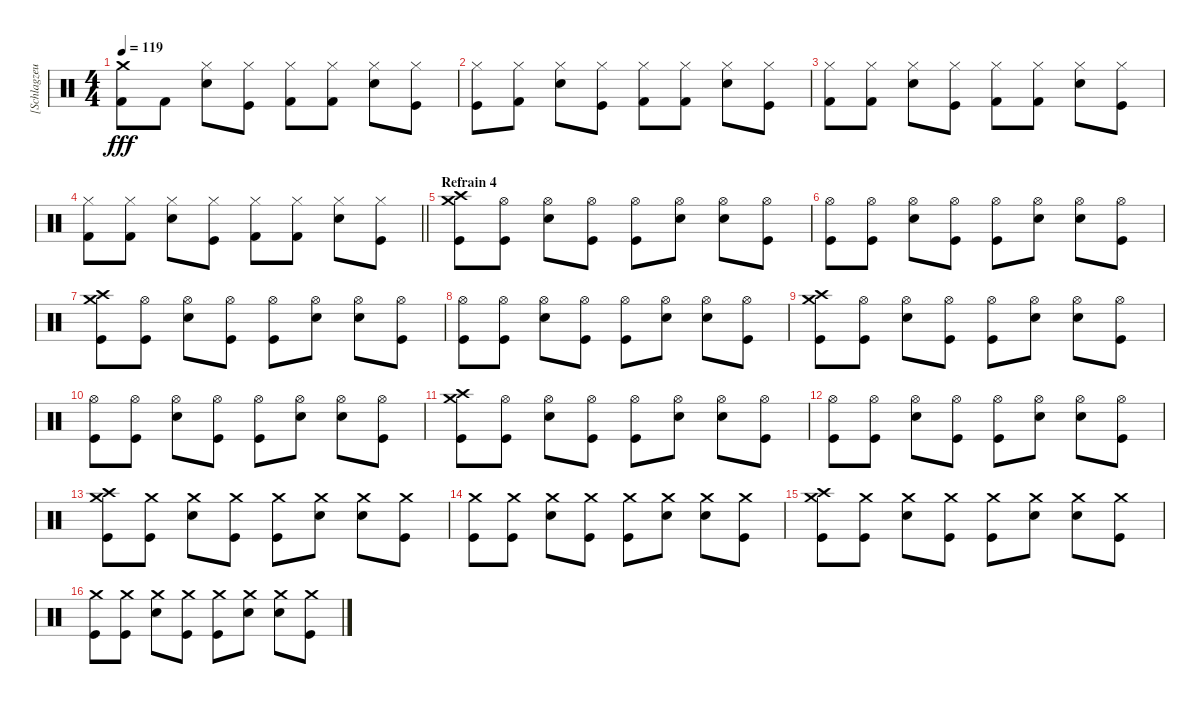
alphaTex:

\track ("[Schlagzeug]" "[Schlagzeu") {instrument percussion}
\staff {score}
\articulation defaults
\ts (4 4)
\tempo 119
\clef neutral
\ks c
("Crash medium (hit)" "Kick (hit) 2").8{dy fff} "Kick (hit) 2".8 ("Hi-Hat (closed)" "Electric Snare (hit)").8 ("Hi-Hat (closed)" "Kick (hit)").8 ("Hi-Hat (closed)" "Kick (hit) 2").8 ("Hi-Hat (closed)" "Kick (hit) 2").8 ("Hi-Hat (closed)" "Electric Snare (hit)").8 ("Hi-Hat (closed)" "Kick (hit)").8 |
("Hi-Hat (closed)" "Kick (hit)").8 ("Hi-Hat (closed)" "Kick (hit) 2").8 ("Hi-Hat (closed)" "Electric Snare (hit)").8 ("Hi-Hat (closed)" "Kick (hit)").8 ("Hi-Hat (closed)" "Kick (hit) 2").8 ("Hi-Hat (closed)" "Kick (hit) 2").8 ("Hi-Hat (closed)" "Electric Snare (hit)").8 ("Hi-Hat (closed)" "Kick (hit)").8 |
("Hi-Hat (closed)" "Kick (hit) 2").8 ("Hi-Hat (closed)" "Kick (hit) 2").8 ("Hi-Hat (closed)" "Electric Snare (hit)").8 ("Hi-Hat (closed)" "Kick (hit)").8 ("Hi-Hat (closed)" "Kick (hit) 2").8 ("Hi-Hat (closed)" "Kick (hit) 2").8 ("Hi-Hat (closed)" "Electric Snare (hit)").8 ("Hi-Hat (closed)" "Kick (hit)").8 |
\barLineRight lightlight
("Hi-Hat (closed)" "Kick (hit) 2").8 ("Hi-Hat (closed)" "Kick (hit) 2").8 ("Hi-Hat (closed)" "Electric Snare (hit)").8 ("Hi-Hat (closed)" "Kick (hit)").8 ("Hi-Hat (closed)" "Kick (hit) 2").8 ("Hi-Hat (closed)" "Kick (hit) 2").8 ("Hi-Hat (closed)" "Electric Snare (hit)").8 ("Hi-Hat (closed)" "Kick (hit)").8 |
\section ("" "Refrain 4")
("Crash medium (hit)" "Crash high (hit)" "Kick (hit)").8 ("Hi-Hat (open)" "Kick (hit)").8 ("Hi-Hat (open)" "Electric Snare (hit)").8 ("Hi-Hat (open)" "Kick (hit)").8 ("Hi-Hat (open)" "Kick (hit)").8 ("Hi-Hat (open)" "Electric Snare (hit)").8 ("Hi-Hat (open)" "Electric Snare (hit)").8 ("Hi-Hat (open)" "Kick (hit)").8 |
("Hi-Hat (open)" "Kick (hit)").8 ("Hi-Hat (open)" "Kick (hit)").8 ("Hi-Hat (open)" "Electric Snare (hit)").8 ("Hi-Hat (open)" "Kick (hit)").8 ("Hi-Hat (open)" "Kick (hit)").8 ("Hi-Hat (open)" "Electric Snare (hit)").8 ("Hi-Hat (open)" "Electric Snare (hit)").8 ("Hi-Hat (open)" "Kick (hit)").8 |
("Crash medium (hit)" "Crash high (hit)" "Kick (hit)").8 ("Hi-Hat (open)" "Kick (hit)").8 ("Hi-Hat (open)" "Electric Snare (hit)").8 ("Hi-Hat (open)" "Kick (hit)").8 ("Hi-Hat (open)" "Kick (hit)").8 ("Hi-Hat (open)" "Electric Snare (hit)").8 ("Hi-Hat (open)" "Electric Snare (hit)").8 ("Hi-Hat (open)" "Kick (hit)").8 |
("Hi-Hat (open)" "Kick (hit)").8 ("Hi-Hat (open)" "Kick (hit)").8 ("Hi-Hat (open)" "Electric Snare (hit)").8 ("Hi-Hat (open)" "Kick (hit)").8 ("Hi-Hat (open)" "Kick (hit)").8 ("Hi-Hat (open)" "Electric Snare (hit)").8 ("Hi-Hat (open)" "Electric Snare (hit)").8 ("Hi-Hat (open)" "Kick (hit)").8 |
("Crash medium (hit)" "Crash high (hit)" "Kick (hit)").8 ("Hi-Hat (open)" "Kick (hit)").8 ("Hi-Hat (open)" "Electric Snare (hit)").8 ("Hi-Hat (open)" "Kick (hit)").8 ("Hi-Hat (open)" "Kick (hit)").8 ("Hi-Hat (open)" "Electric Snare (hit)").8 ("Hi-Hat (open)" "Electric Snare (hit)").8 ("Hi-Hat (open)" "Kick (hit)").8 |
("Hi-Hat (open)" "Kick (hit)").8 ("Hi-Hat (open)" "Kick (hit)").8 ("Hi-Hat (open)" "Electric Snare (hit)").8 ("Hi-Hat (open)" "Kick (hit)").8 ("Hi-Hat (open)" "Kick (hit)").8 ("Hi-Hat (open)" "Electric Snare (hit)").8 ("Hi-Hat (open)" "Electric Snare (hit)").8 ("Hi-Hat (open)" "Kick (hit)").8 |
("Crash medium (hit)" "Crash high (hit)" "Kick (hit)").8 ("Hi-Hat (open)" "Kick (hit)").8 ("Hi-Hat (open)" "Electric Snare (hit)").8 ("Hi-Hat (open)" "Kick (hit)").8 ("Hi-Hat (open)" "Kick (hit)").8 ("Hi-Hat (open)" "Electric Snare (hit)").8 ("Hi-Hat (open)" "Electric Snare (hit)").8 ("Hi-Hat (open)" "Kick (hit)").8 |
("Hi-Hat (open)" "Kick (hit)").8 ("Hi-Hat (open)" "Kick (hit)").8 ("Hi-Hat (open)" "Electric Snare (hit)").8 ("Hi-Hat (open)" "Kick (hit)").8 ("Hi-Hat (open)" "Kick (hit)").8 ("Hi-Hat (open)" "Electric Snare (hit)").8 ("Hi-Hat (open)" "Electric Snare (hit)").8 ("Hi-Hat (open)" "Kick (hit)").8 |
("Crash medium (hit)" "Crash high (hit)" "Kick (hit)").8 ("Crash medium (hit)" "Kick (hit)").8 ("Crash medium (hit)" "Electric Snare (hit)").8 ("Crash medium (hit)" "Kick (hit)").8 ("Crash medium (hit)" "Kick (hit)").8 ("Crash medium (hit)" "Electric Snare (hit)").8 ("Crash medium (hit)" "Electric Snare (hit)").8 ("Crash medium (hit)" "Kick (hit)").8 |
("Crash medium (hit)" "Kick (hit)").8 ("Crash medium (hit)" "Kick (hit)").8 ("Crash medium (hit)" "Electric Snare (hit)").8 ("Crash medium (hit)" "Kick (hit)").8 ("Crash medium (hit)" "Kick (hit)").8 ("Crash medium (hit)" "Electric Snare (hit)").8 ("Crash medium (hit)" "Electric Snare (hit)").8 ("Crash medium (hit)" "Kick (hit)").8 |
("Crash medium (hit)" "Crash high (hit)" "Kick (hit)").8 ("Crash medium (hit)" "Kick (hit)").8 ("Crash medium (hit)" "Electric Snare (hit)").8 ("Crash medium (hit)" "Kick (hit)").8 ("Crash medium (hit)" "Kick (hit)").8 ("Crash medium (hit)" "Electric Snare (hit)").8 ("Crash medium (hit)" "Electric Snare (hit)").8 ("Crash medium (hit)" "Kick (hit)").8 |
("Crash medium (hit)" "Kick (hit)").8 ("Crash medium (hit)" "Kick (hit)").8 ("Crash medium (hit)" "Electric Snare (hit)").8 ("Crash medium (hit)" "Kick (hit)").8 ("Crash medium (hit)" "Kick (hit)").8 ("Crash medium (hit)" "Electric Snare (hit)").8 ("Crash medium (hit)" "Electric Snare (hit)").8 ("Crash medium (hit)" "Kick (hit)").8
